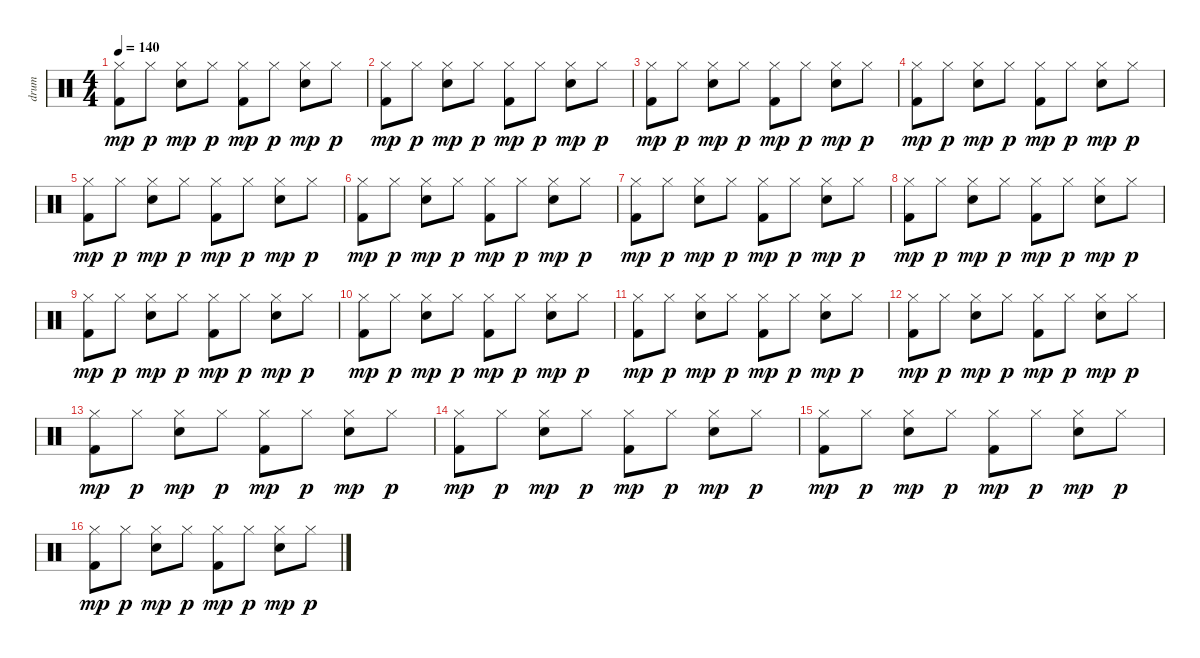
\track ("drum" "drum") {instrument percussion}
\staff {score}
\articulation defaults
\ts (4 4)
\tempo 140
\clef neutral
\ks c
("Hi-Hat (closed)" "Kick (hit) 2").8{dy mp} "Hi-Hat (closed)".8{dy p} ("Hi-Hat (closed)" "Snare (hit) 2").8{dy mp} "Hi-Hat (closed)".8{dy p} ("Hi-Hat (closed)" "Kick (hit) 2").8{dy mp} "Hi-Hat (closed)".8{dy p} ("Hi-Hat (closed)" "Snare (hit) 2").8{dy mp} "Hi-Hat (closed)".8{dy p} |
("Hi-Hat (closed)" "Kick (hit) 2").8{dy mp} "Hi-Hat (closed)".8{dy p} ("Hi-Hat (closed)" "Snare (hit) 2").8{dy mp} "Hi-Hat (closed)".8{dy p} ("Hi-Hat (closed)" "Kick (hit) 2").8{dy mp} "Hi-Hat (closed)".8{dy p} ("Hi-Hat (closed)" "Snare (hit) 2").8{dy mp} "Hi-Hat (closed)".8{dy p} |
("Hi-Hat (closed)" "Kick (hit) 2").8{dy mp} "Hi-Hat (closed)".8{dy p} ("Hi-Hat (closed)" "Snare (hit) 2").8{dy mp} "Hi-Hat (closed)".8{dy p} ("Hi-Hat (closed)" "Kick (hit) 2").8{dy mp} "Hi-Hat (closed)".8{dy p} ("Hi-Hat (closed)" "Snare (hit) 2").8{dy mp} "Hi-Hat (closed)".8{dy p} |
("Hi-Hat (closed)" "Kick (hit) 2").8{dy mp} "Hi-Hat (closed)".8{dy p} ("Hi-Hat (closed)" "Snare (hit) 2").8{dy mp} "Hi-Hat (closed)".8{dy p} ("Hi-Hat (closed)" "Kick (hit) 2").8{dy mp} "Hi-Hat (closed)".8{dy p} ("Hi-Hat (closed)" "Snare (hit) 2").8{dy mp} "Hi-Hat (closed)".8{dy p} |
("Hi-Hat (closed)" "Kick (hit) 2").8{dy mp} "Hi-Hat (closed)".8{dy p} ("Hi-Hat (closed)" "Snare (hit) 2").8{dy mp} "Hi-Hat (closed)".8{dy p} ("Hi-Hat (closed)" "Kick (hit) 2").8{dy mp} "Hi-Hat (closed)".8{dy p} ("Hi-Hat (closed)" "Snare (hit) 2").8{dy mp} "Hi-Hat (closed)".8{dy p} |
("Hi-Hat (closed)" "Kick (hit) 2").8{dy mp} "Hi-Hat (closed)".8{dy p} ("Hi-Hat (closed)" "Snare (hit) 2").8{dy mp} "Hi-Hat (closed)".8{dy p} ("Hi-Hat (closed)" "Kick (hit) 2").8{dy mp} "Hi-Hat (closed)".8{dy p} ("Hi-Hat (closed)" "Snare (hit) 2").8{dy mp} "Hi-Hat (closed)".8{dy p} |
("Hi-Hat (closed)" "Kick (hit) 2").8{dy mp} "Hi-Hat (closed)".8{dy p} ("Hi-Hat (closed)" "Snare (hit) 2").8{dy mp} "Hi-Hat (closed)".8{dy p} ("Hi-Hat (closed)" "Kick (hit) 2").8{dy mp} "Hi-Hat (closed)".8{dy p} ("Hi-Hat (closed)" "Snare (hit) 2").8{dy mp} "Hi-Hat (closed)".8{dy p} |
("Hi-Hat (closed)" "Kick (hit) 2").8{dy mp} "Hi-Hat (closed)".8{dy p} ("Hi-Hat (closed)" "Snare (hit) 2").8{dy mp} "Hi-Hat (closed)".8{dy p} ("Hi-Hat (closed)" "Kick (hit) 2").8{dy mp} "Hi-Hat (closed)".8{dy p} ("Hi-Hat (closed)" "Snare (hit) 2").8{dy mp} "Hi-Hat (closed)".8{dy p} |
("Hi-Hat (closed)" "Kick (hit) 2").8{dy mp} "Hi-Hat (closed)".8{dy p} ("Hi-Hat (closed)" "Snare (hit) 2").8{dy mp} "Hi-Hat (closed)".8{dy p} ("Hi-Hat (closed)" "Kick (hit) 2").8{dy mp} "Hi-Hat (closed)".8{dy p} ("Hi-Hat (closed)" "Snare (hit) 2").8{dy mp} "Hi-Hat (closed)".8{dy p} |
("Hi-Hat (closed)" "Kick (hit) 2").8{dy mp} "Hi-Hat (closed)".8{dy p} ("Hi-Hat (closed)" "Snare (hit) 2").8{dy mp} "Hi-Hat (closed)".8{dy p} ("Hi-Hat (closed)" "Kick (hit) 2").8{dy mp} "Hi-Hat (closed)".8{dy p} ("Hi-Hat (closed)" "Snare (hit) 2").8{dy mp} "Hi-Hat (closed)".8{dy p} |
("Hi-Hat (closed)" "Kick (hit) 2").8{dy mp} "Hi-Hat (closed)".8{dy p} ("Hi-Hat (closed)" "Snare (hit) 2").8{dy mp} "Hi-Hat (closed)".8{dy p} ("Hi-Hat (closed)" "Kick (hit) 2").8{dy mp} "Hi-Hat (closed)".8{dy p} ("Hi-Hat (closed)" "Snare (hit) 2").8{dy mp} "Hi-Hat (closed)".8{dy p} |
("Hi-Hat (closed)" "Kick (hit) 2").8{dy mp} "Hi-Hat (closed)".8{dy p} ("Hi-Hat (closed)" "Snare (hit) 2").8{dy mp} "Hi-Hat (closed)".8{dy p} ("Hi-Hat (closed)" "Kick (hit) 2").8{dy mp} "Hi-Hat (closed)".8{dy p} ("Hi-Hat (closed)" "Snare (hit) 2").8{dy mp} "Hi-Hat (closed)".8{dy p} |
("Hi-Hat (closed)" "Kick (hit) 2").8{dy mp} "Hi-Hat (closed)".8{dy p} ("Hi-Hat (closed)" "Snare (hit) 2").8{dy mp} "Hi-Hat (closed)".8{dy p} ("Hi-Hat (closed)" "Kick (hit) 2").8{dy mp} "Hi-Hat (closed)".8{dy p} ("Hi-Hat (closed)" "Snare (hit) 2").8{dy mp} "Hi-Hat (closed)".8{dy p} |
("Hi-Hat (closed)" "Kick (hit) 2").8{dy mp} "Hi-Hat (closed)".8{dy p} ("Hi-Hat (closed)" "Snare (hit) 2").8{dy mp} "Hi-Hat (closed)".8{dy p} ("Hi-Hat (closed)" "Kick (hit) 2").8{dy mp} "Hi-Hat (closed)".8{dy p} ("Hi-Hat (closed)" "Snare (hit) 2").8{dy mp} "Hi-Hat (closed)".8{dy p} |
("Hi-Hat (closed)" "Kick (hit) 2").8{dy mp} "Hi-Hat (closed)".8{dy p} ("Hi-Hat (closed)" "Snare (hit) 2").8{dy mp} "Hi-Hat (closed)".8{dy p} ("Hi-Hat (closed)" "Kick (hit) 2").8{dy mp} "Hi-Hat (closed)".8{dy p} ("Hi-Hat (closed)" "Snare (hit) 2").8{dy mp} "Hi-Hat (closed)".8{dy p} |
("Hi-Hat (closed)" "Kick (hit) 2").8{dy mp} "Hi-Hat (closed)".8{dy p} ("Hi-Hat (closed)" "Snare (hit) 2").8{dy mp} "Hi-Hat (closed)".8{dy p} ("Hi-Hat (closed)" "Kick (hit) 2").8{dy mp} "Hi-Hat (closed)".8{dy p} ("Hi-Hat (closed)" "Snare (hit) 2").8{dy mp} "Hi-Hat (closed)".8{dy p}
